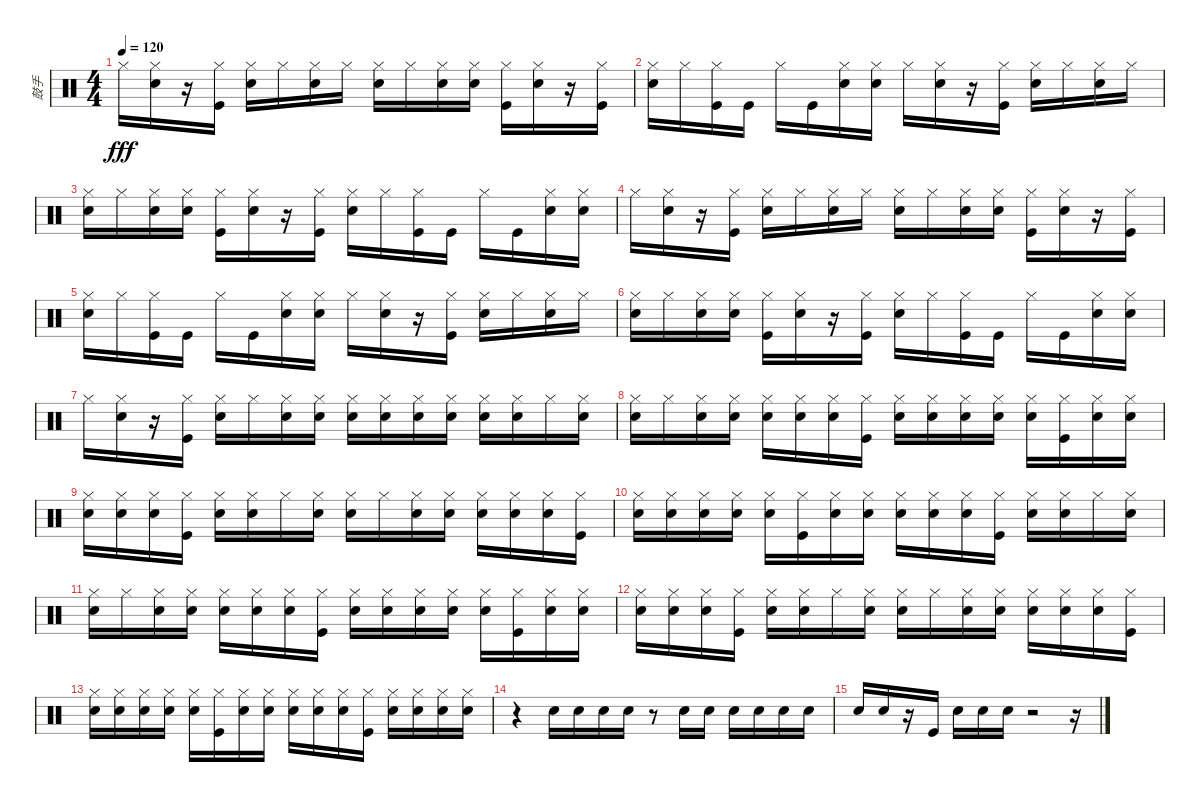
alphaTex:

\track ("鼓手" "鼓手") {instrument percussion}
\staff {score}
\articulation defaults
\ts (4 4)
\tempo 120
\clef neutral
\ks c "Hi-Hat (closed)".16{dy fff}
("Snare (hit) 2" "Hi-Hat (closed)").16 r.16 ("Kick (hit)" "Hi-Hat (closed)").16 ("Snare (hit) 2" "Hi-Hat (closed)").16 "Hi-Hat (closed)".16 ("Snare (hit) 2" "Hi-Hat (closed)").16 "Hi-Hat (closed)".16 ("Snare (hit) 2" "Hi-Hat (closed)").16 "Hi-Hat (closed)".16 ("Snare (hit) 2" "Hi-Hat (closed)").16 ("Snare (hit) 2" "Hi-Hat (closed)").16 ("Kick (hit)" "Hi-Hat (closed)").16 ("Snare (hit) 2" "Hi-Hat (closed)").16 r.16 ("Kick (hit)" "Hi-Hat (closed)").16 |
("Snare (hit) 2" "Hi-Hat (closed)").16 "Hi-Hat (closed)".16 ("Kick (hit)" "Hi-Hat (closed)").16 "Kick (hit)".16 "Hi-Hat (closed)".16 "Kick (hit)".16 ("Snare (hit) 2" "Hi-Hat (closed)").16 ("Snare (hit) 2" "Hi-Hat (closed)").16 "Hi-Hat (closed)".16 ("Snare (hit) 2" "Hi-Hat (closed)").16 r.16 ("Kick (hit)" "Hi-Hat (closed)").16 ("Snare (hit) 2" "Hi-Hat (closed)").16 "Hi-Hat (closed)".16 ("Snare (hit) 2" "Hi-Hat (closed)").16 "Hi-Hat (closed)".16 |
("Snare (hit) 2" "Hi-Hat (closed)").16 "Hi-Hat (closed)".16 ("Snare (hit) 2" "Hi-Hat (closed)").16 ("Snare (hit) 2" "Hi-Hat (closed)").16 ("Kick (hit)" "Hi-Hat (closed)").16 ("Snare (hit) 2" "Hi-Hat (closed)").16 r.16 ("Kick (hit)" "Hi-Hat (closed)").16 ("Snare (hit) 2" "Hi-Hat (closed)").16 "Hi-Hat (closed)".16 ("Kick (hit)" "Hi-Hat (closed)").16 "Kick (hit)".16 "Hi-Hat (closed)".16 "Kick (hit)".16 ("Snare (hit) 2" "Hi-Hat (closed)").16 ("Snare (hit) 2" "Hi-Hat (closed)").16 |
"Hi-Hat (closed)".16 ("Snare (hit) 2" "Hi-Hat (closed)").16 r.16 ("Kick (hit)" "Hi-Hat (closed)").16 ("Snare (hit) 2" "Hi-Hat (closed)").16 "Hi-Hat (closed)".16 ("Snare (hit) 2" "Hi-Hat (closed)").16 "Hi-Hat (closed)".16 ("Snare (hit) 2" "Hi-Hat (closed)").16 "Hi-Hat (closed)".16 ("Snare (hit) 2" "Hi-Hat (closed)").16 ("Snare (hit) 2" "Hi-Hat (closed)").16 ("Kick (hit)" "Hi-Hat (closed)").16 ("Snare (hit) 2" "Hi-Hat (closed)").16 r.16 ("Kick (hit)" "Hi-Hat (closed)").16 |
("Snare (hit) 2" "Hi-Hat (closed)").16 "Hi-Hat (closed)".16 ("Kick (hit)" "Hi-Hat (closed)").16 "Kick (hit)".16 "Hi-Hat (closed)".16 "Kick (hit)".16 ("Snare (hit) 2" "Hi-Hat (closed)").16 ("Snare (hit) 2" "Hi-Hat (closed)").16 "Hi-Hat (closed)".16 ("Snare (hit) 2" "Hi-Hat (closed)").16 r.16 ("Kick (hit)" "Hi-Hat (closed)").16 ("Snare (hit) 2" "Hi-Hat (closed)").16 "Hi-Hat (closed)".16 ("Snare (hit) 2" "Hi-Hat (closed)").16 "Hi-Hat (closed)".16 |
("Snare (hit) 2" "Hi-Hat (closed)").16 "Hi-Hat (closed)".16 ("Snare (hit) 2" "Hi-Hat (closed)").16 ("Snare (hit) 2" "Hi-Hat (closed)").16 ("Kick (hit)" "Hi-Hat (closed)").16 ("Snare (hit) 2" "Hi-Hat (closed)").16 r.16 ("Kick (hit)" "Hi-Hat (closed)").16 ("Snare (hit) 2" "Hi-Hat (closed)").16 "Hi-Hat (closed)".16 ("Kick (hit)" "Hi-Hat (closed)").16 "Kick (hit)".16 "Hi-Hat (closed)".16 "Kick (hit)".16 ("Snare (hit) 2" "Hi-Hat (closed)").16 ("Snare (hit) 2" "Hi-Hat (closed)").16 |
"Hi-Hat (closed)".16 ("Snare (hit) 2" "Hi-Hat (closed)").16 r.16 ("Kick (hit)" "Hi-Hat (closed)").16 ("Snare (hit) 2" "Hi-Hat (closed)").16 "Hi-Hat (closed)".16 ("Snare (hit) 2" "Hi-Hat (closed)").16 ("Snare (hit) 2" "Hi-Hat (closed)").16 ("Snare (hit) 2" "Hi-Hat (closed)").16 ("Snare (hit) 2" "Hi-Hat (closed)").16 ("Snare (hit) 2" "Hi-Hat (closed)").16 ("Snare (hit) 2" "Hi-Hat (closed)").16 ("Snare (hit) 2" "Hi-Hat (closed)").16 ("Snare (hit) 2" "Hi-Hat (closed)").16 "Hi-Hat (closed)".16 ("Snare (hit) 2" "Hi-Hat (closed)").16 |
("Snare (hit) 2" "Hi-Hat (closed)").16 "Hi-Hat (closed)".16 ("Snare (hit) 2" "Hi-Hat (closed)").16 ("Snare (hit) 2" "Hi-Hat (closed)").16 ("Snare (hit) 2" "Hi-Hat (closed)").16 ("Snare (hit) 2" "Hi-Hat (closed)").16 ("Snare (hit) 2" "Hi-Hat (closed)").16 ("Kick (hit)" "Hi-Hat (closed)").16 ("Snare (hit) 2" "Hi-Hat (closed)").16 ("Snare (hit) 2" "Hi-Hat (closed)").16 ("Snare (hit) 2" "Hi-Hat (closed)").16 ("Snare (hit) 2" "Hi-Hat (closed)").16 ("Snare (hit) 2" "Hi-Hat (closed)").16 ("Kick (hit)" "Hi-Hat (closed)").16 ("Snare (hit) 2" "Hi-Hat (closed)").16 ("Snare (hit) 2" "Hi-Hat (closed)").16 |
("Snare (hit) 2" "Hi-Hat (closed)").16 ("Snare (hit) 2" "Hi-Hat (closed)").16 ("Snare (hit) 2" "Hi-Hat (closed)").16 ("Kick (hit)" "Hi-Hat (closed)").16 ("Snare (hit) 2" "Hi-Hat (closed)").16 ("Snare (hit) 2" "Hi-Hat (closed)").16 "Hi-Hat (closed)".16 ("Snare (hit) 2" "Hi-Hat (closed)").16 ("Snare (hit) 2" "Hi-Hat (closed)").16 "Hi-Hat (closed)".16 ("Snare (hit) 2" "Hi-Hat (closed)").16 ("Snare (hit) 2" "Hi-Hat (closed)").16 ("Snare (hit) 2" "Hi-Hat (closed)").16 ("Snare (hit) 2" "Hi-Hat (closed)").16 ("Snare (hit) 2" "Hi-Hat (closed)").16 ("Kick (hit)" "Hi-Hat (closed)").16 |
("Snare (hit) 2" "Hi-Hat (closed)").16 ("Snare (hit) 2" "Hi-Hat (closed)").16 ("Snare (hit) 2" "Hi-Hat (closed)").16 ("Snare (hit) 2" "Hi-Hat (closed)").16 ("Snare (hit) 2" "Hi-Hat (closed)").16 ("Kick (hit)" "Hi-Hat (closed)").16 ("Snare (hit) 2" "Hi-Hat (closed)").16 ("Snare (hit) 2" "Hi-Hat (closed)").16 ("Snare (hit) 2" "Hi-Hat (closed)").16 ("Snare (hit) 2" "Hi-Hat (closed)").16 ("Snare (hit) 2" "Hi-Hat (closed)").16 ("Kick (hit)" "Hi-Hat (closed)").16 ("Snare (hit) 2" "Hi-Hat (closed)").16 ("Snare (hit) 2" "Hi-Hat (closed)").16 "Hi-Hat (closed)".16 ("Snare (hit) 2" "Hi-Hat (closed)").16 |
("Snare (hit) 2" "Hi-Hat (closed)").16 "Hi-Hat (closed)".16 ("Snare (hit) 2" "Hi-Hat (closed)").16 ("Snare (hit) 2" "Hi-Hat (closed)").16 ("Snare (hit) 2" "Hi-Hat (closed)").16 ("Snare (hit) 2" "Hi-Hat (closed)").16 ("Snare (hit) 2" "Hi-Hat (closed)").16 ("Kick (hit)" "Hi-Hat (closed)").16 ("Snare (hit) 2" "Hi-Hat (closed)").16 ("Snare (hit) 2" "Hi-Hat (closed)").16 ("Snare (hit) 2" "Hi-Hat (closed)").16 ("Snare (hit) 2" "Hi-Hat (closed)").16 ("Snare (hit) 2" "Hi-Hat (closed)").16 ("Kick (hit)" "Hi-Hat (closed)").16 ("Snare (hit) 2" "Hi-Hat (closed)").16 ("Snare (hit) 2" "Hi-Hat (closed)").16 |
("Snare (hit) 2" "Hi-Hat (closed)").16 ("Snare (hit) 2" "Hi-Hat (closed)").16 ("Snare (hit) 2" "Hi-Hat (closed)").16 ("Kick (hit)" "Hi-Hat (closed)").16 ("Snare (hit) 2" "Hi-Hat (closed)").16 ("Snare (hit) 2" "Hi-Hat (closed)").16 "Hi-Hat (closed)".16 ("Snare (hit) 2" "Hi-Hat (closed)").16 ("Snare (hit) 2" "Hi-Hat (closed)").16 "Hi-Hat (closed)".16 ("Snare (hit) 2" "Hi-Hat (closed)").16 ("Snare (hit) 2" "Hi-Hat (closed)").16 ("Snare (hit) 2" "Hi-Hat (closed)").16 ("Snare (hit) 2" "Hi-Hat (closed)").16 ("Snare (hit) 2" "Hi-Hat (closed)").16 ("Kick (hit)" "Hi-Hat (closed)").16 |
("Snare (hit) 2" "Hi-Hat (closed)").16 ("Snare (hit) 2" "Hi-Hat (closed)").16 ("Snare (hit) 2" "Hi-Hat (closed)").16 ("Snare (hit) 2" "Hi-Hat (closed)").16 ("Snare (hit) 2" "Hi-Hat (closed)").16 ("Kick (hit)" "Hi-Hat (closed)").16 ("Snare (hit) 2" "Hi-Hat (closed)").16 ("Snare (hit) 2" "Hi-Hat (closed)").16 ("Snare (hit) 2" "Hi-Hat (closed)").16 ("Snare (hit) 2" "Hi-Hat (closed)").16 ("Snare (hit) 2" "Hi-Hat (closed)").16 ("Kick (hit)" "Hi-Hat (closed)").16 ("Snare (hit) 2" "Hi-Hat (closed)").16 ("Snare (hit) 2" "Hi-Hat (closed)").16 ("Snare (hit) 2" "Hi-Hat (closed)").16 ("Snare (hit) 2" "Hi-Hat (closed)").16 |
r.4 "Snare (hit) 2".16 "Snare (hit) 2".16 "Snare (hit) 2".16 "Snare (hit) 2".16 r.8 "Snare (hit) 2".16 "Snare (hit) 2".16 "Snare (hit) 2".16 "Snare (hit) 2".16 "Snare (hit) 2".16 "Snare (hit) 2".16 |
"Snare (hit) 2".16 "Snare (hit) 2".16 r.16 "Kick (hit)".16 "Snare (hit) 2".16 "Snare (hit) 2".16 "Snare (hit) 2".16 r.2 r.16
